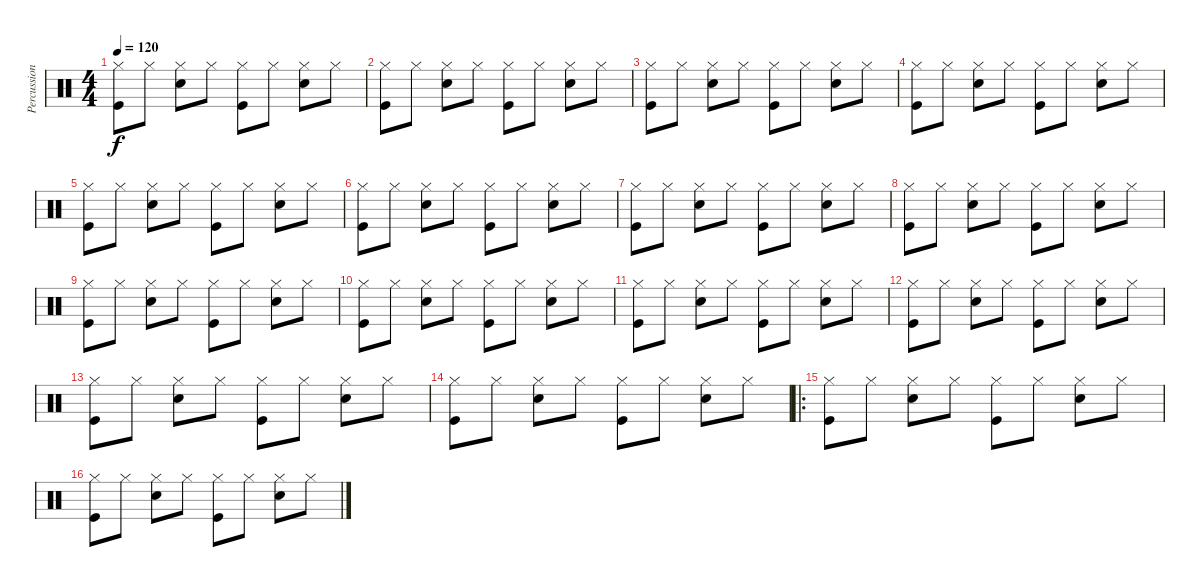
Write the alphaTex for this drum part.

\track ("Percussions" "Percussion") {instrument percussion}
\staff {score}
\articulation defaults
\ts (4 4)
\tempo 120
\clef neutral
\ks c
("Hi-Hat (closed)" "Kick (hit)").8{dy f} "Hi-Hat (closed)".8 ("Hi-Hat (closed)" "Snare (hit) 2").8 "Hi-Hat (closed)".8 ("Hi-Hat (closed)" "Kick (hit)").8 "Hi-Hat (closed)".8 ("Hi-Hat (closed)" "Snare (hit) 2").8 "Hi-Hat (closed)".8 |
("Hi-Hat (closed)" "Kick (hit)").8 "Hi-Hat (closed)".8 ("Hi-Hat (closed)" "Snare (hit) 2").8 "Hi-Hat (closed)".8 ("Hi-Hat (closed)" "Kick (hit)").8 "Hi-Hat (closed)".8 ("Hi-Hat (closed)" "Snare (hit) 2").8 "Hi-Hat (closed)".8 |
("Hi-Hat (closed)" "Kick (hit)").8 "Hi-Hat (closed)".8 ("Hi-Hat (closed)" "Snare (hit) 2").8 "Hi-Hat (closed)".8 ("Hi-Hat (closed)" "Kick (hit)").8 "Hi-Hat (closed)".8 ("Hi-Hat (closed)" "Snare (hit) 2").8 "Hi-Hat (closed)".8 |
("Hi-Hat (closed)" "Kick (hit)").8 "Hi-Hat (closed)".8 ("Hi-Hat (closed)" "Snare (hit) 2").8 "Hi-Hat (closed)".8 ("Hi-Hat (closed)" "Kick (hit)").8 "Hi-Hat (closed)".8 ("Hi-Hat (closed)" "Snare (hit) 2").8 "Hi-Hat (closed)".8 |
("Hi-Hat (closed)" "Kick (hit)").8 "Hi-Hat (closed)".8 ("Hi-Hat (closed)" "Snare (hit) 2").8 "Hi-Hat (closed)".8 ("Hi-Hat (closed)" "Kick (hit)").8 "Hi-Hat (closed)".8 ("Hi-Hat (closed)" "Snare (hit) 2").8 "Hi-Hat (closed)".8 |
("Hi-Hat (closed)" "Kick (hit)").8 "Hi-Hat (closed)".8 ("Hi-Hat (closed)" "Snare (hit) 2").8 "Hi-Hat (closed)".8 ("Hi-Hat (closed)" "Kick (hit)").8 "Hi-Hat (closed)".8 ("Hi-Hat (closed)" "Snare (hit) 2").8 "Hi-Hat (closed)".8 |
("Hi-Hat (closed)" "Kick (hit)").8 "Hi-Hat (closed)".8 ("Hi-Hat (closed)" "Snare (hit) 2").8 "Hi-Hat (closed)".8 ("Hi-Hat (closed)" "Kick (hit)").8 "Hi-Hat (closed)".8 ("Hi-Hat (closed)" "Snare (hit) 2").8 "Hi-Hat (closed)".8 |
("Hi-Hat (closed)" "Kick (hit)").8 "Hi-Hat (closed)".8 ("Hi-Hat (closed)" "Snare (hit) 2").8 "Hi-Hat (closed)".8 ("Hi-Hat (closed)" "Kick (hit)").8 "Hi-Hat (closed)".8 ("Hi-Hat (closed)" "Snare (hit) 2").8 "Hi-Hat (closed)".8 |
("Hi-Hat (closed)" "Kick (hit)").8 "Hi-Hat (closed)".8 ("Hi-Hat (closed)" "Snare (hit) 2").8 "Hi-Hat (closed)".8 ("Hi-Hat (closed)" "Kick (hit)").8 "Hi-Hat (closed)".8 ("Hi-Hat (closed)" "Snare (hit) 2").8 "Hi-Hat (closed)".8 |
("Hi-Hat (closed)" "Kick (hit)").8 "Hi-Hat (closed)".8 ("Hi-Hat (closed)" "Snare (hit) 2").8 "Hi-Hat (closed)".8 ("Hi-Hat (closed)" "Kick (hit)").8 "Hi-Hat (closed)".8 ("Hi-Hat (closed)" "Snare (hit) 2").8 "Hi-Hat (closed)".8 |
("Hi-Hat (closed)" "Kick (hit)").8 "Hi-Hat (closed)".8 ("Hi-Hat (closed)" "Snare (hit) 2").8 "Hi-Hat (closed)".8 ("Hi-Hat (closed)" "Kick (hit)").8 "Hi-Hat (closed)".8 ("Hi-Hat (closed)" "Snare (hit) 2").8 "Hi-Hat (closed)".8 |
("Hi-Hat (closed)" "Kick (hit)").8 "Hi-Hat (closed)".8 ("Hi-Hat (closed)" "Snare (hit) 2").8 "Hi-Hat (closed)".8 ("Hi-Hat (closed)" "Kick (hit)").8 "Hi-Hat (closed)".8 ("Hi-Hat (closed)" "Snare (hit) 2").8 "Hi-Hat (closed)".8 |
("Hi-Hat (closed)" "Kick (hit)").8 "Hi-Hat (closed)".8 ("Hi-Hat (closed)" "Snare (hit) 2").8 "Hi-Hat (closed)".8 ("Hi-Hat (closed)" "Kick (hit)").8 "Hi-Hat (closed)".8 ("Hi-Hat (closed)" "Snare (hit) 2").8 "Hi-Hat (closed)".8 |
("Hi-Hat (closed)" "Kick (hit)").8 "Hi-Hat (closed)".8 ("Hi-Hat (closed)" "Snare (hit) 2").8 "Hi-Hat (closed)".8 ("Hi-Hat (closed)" "Kick (hit)").8 "Hi-Hat (closed)".8 ("Hi-Hat (closed)" "Snare (hit) 2").8 "Hi-Hat (closed)".8 |
\ro
("Hi-Hat (closed)" "Kick (hit)").8 "Hi-Hat (closed)".8 ("Hi-Hat (closed)" "Snare (hit) 2").8 "Hi-Hat (closed)".8 ("Hi-Hat (closed)" "Kick (hit)").8 "Hi-Hat (closed)".8 ("Hi-Hat (closed)" "Snare (hit) 2").8 "Hi-Hat (closed)".8 |
("Hi-Hat (closed)" "Kick (hit)").8 "Hi-Hat (closed)".8 ("Hi-Hat (closed)" "Snare (hit) 2").8 "Hi-Hat (closed)".8 ("Hi-Hat (closed)" "Kick (hit)").8 "Hi-Hat (closed)".8 ("Hi-Hat (closed)" "Snare (hit) 2").8 "Hi-Hat (closed)".8
